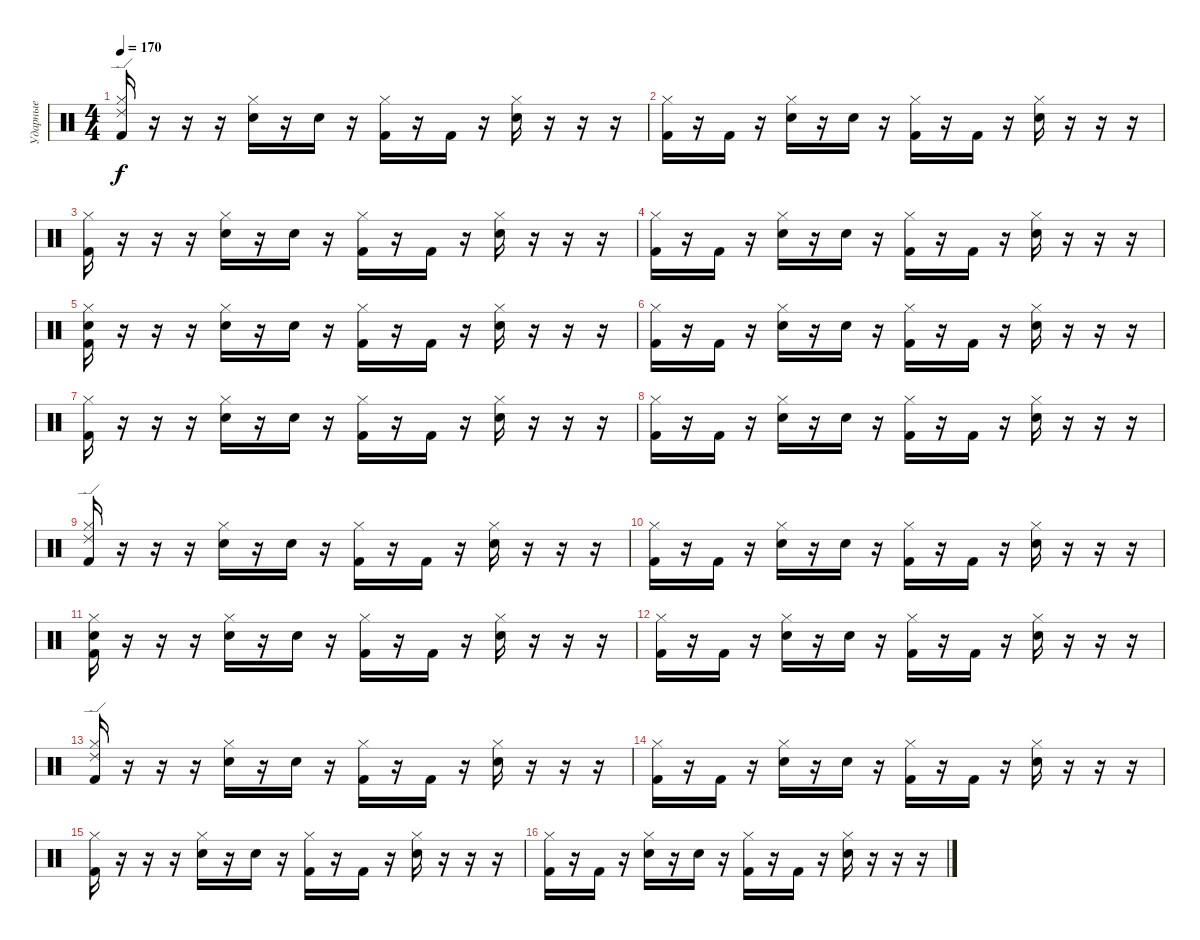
\track ("Ударные" "Ударные") {instrument percussion}
\staff {score}
\articulation defaults
\ts (4 4)
\tempo 170
\clef neutral
\ks c
("Ride (edge) 2" "Hi-Hat (closed)" "Kick (hit) 2").16{dy f} r.16 r.16 r.16 ("Hi-Hat (closed)" "Snare (hit) 2").16 r.16 "Snare (hit) 2".16 r.16 ("Hi-Hat (closed)" "Kick (hit) 2").16 r.16 "Kick (hit) 2".16 r.16 ("Hi-Hat (closed)" "Snare (hit) 2").16 r.16 r.16 r.16 |
("Hi-Hat (closed)" "Kick (hit) 2").16 r.16 "Kick (hit) 2".16 r.16 ("Hi-Hat (closed)" "Snare (hit) 2").16 r.16 "Snare (hit) 2".16 r.16 ("Hi-Hat (closed)" "Kick (hit) 2").16 r.16 "Kick (hit) 2".16 r.16 ("Hi-Hat (closed)" "Snare (hit) 2").16 r.16 r.16 r.16 |
("Hi-Hat (closed)" "Kick (hit) 2").16 r.16 r.16 r.16 ("Hi-Hat (closed)" "Snare (hit) 2").16 r.16 "Snare (hit) 2".16 r.16 ("Hi-Hat (closed)" "Kick (hit) 2").16 r.16 "Kick (hit) 2".16 r.16 ("Hi-Hat (closed)" "Snare (hit) 2").16 r.16 r.16 r.16 |
("Hi-Hat (closed)" "Kick (hit) 2").16 r.16 "Kick (hit) 2".16 r.16 ("Hi-Hat (closed)" "Snare (hit) 2").16 r.16 "Snare (hit) 2".16 r.16 ("Hi-Hat (closed)" "Kick (hit) 2").16 r.16 "Kick (hit) 2".16 r.16 ("Hi-Hat (closed)" "Snare (hit) 2").16 r.16 r.16 r.16 |
("Hi-Hat (closed)" "Snare (hit) 2" "Kick (hit) 2").16 r.16 r.16 r.16 ("Hi-Hat (closed)" "Snare (hit) 2").16 r.16 "Snare (hit) 2".16 r.16 ("Hi-Hat (closed)" "Kick (hit) 2").16 r.16 "Kick (hit) 2".16 r.16 ("Hi-Hat (closed)" "Snare (hit) 2").16 r.16 r.16 r.16 |
("Hi-Hat (closed)" "Kick (hit) 2").16 r.16 "Kick (hit) 2".16 r.16 ("Hi-Hat (closed)" "Snare (hit) 2").16 r.16 "Snare (hit) 2".16 r.16 ("Hi-Hat (closed)" "Kick (hit) 2").16 r.16 "Kick (hit) 2".16 r.16 ("Hi-Hat (closed)" "Snare (hit) 2").16 r.16 r.16 r.16 |
("Hi-Hat (closed)" "Kick (hit) 2").16 r.16 r.16 r.16 ("Hi-Hat (closed)" "Snare (hit) 2").16 r.16 "Snare (hit) 2".16 r.16 ("Hi-Hat (closed)" "Kick (hit) 2").16 r.16 "Kick (hit) 2".16 r.16 ("Hi-Hat (closed)" "Snare (hit) 2").16 r.16 r.16 r.16 |
("Hi-Hat (closed)" "Kick (hit) 2").16 r.16 "Kick (hit) 2".16 r.16 ("Hi-Hat (closed)" "Snare (hit) 2").16 r.16 "Snare (hit) 2".16 r.16 ("Hi-Hat (closed)" "Kick (hit) 2").16 r.16 "Kick (hit) 2".16 r.16 ("Hi-Hat (closed)" "Snare (hit) 2").16 r.16 r.16 r.16 |
("Ride (edge) 2" "Hi-Hat (closed)" "Kick (hit) 2").16 r.16 r.16 r.16 ("Hi-Hat (closed)" "Snare (hit) 2").16 r.16 "Snare (hit) 2".16 r.16 ("Hi-Hat (closed)" "Kick (hit) 2").16 r.16 "Kick (hit) 2".16 r.16 ("Hi-Hat (closed)" "Snare (hit) 2").16 r.16 r.16 r.16 |
("Hi-Hat (closed)" "Kick (hit) 2").16 r.16 "Kick (hit) 2".16 r.16 ("Hi-Hat (closed)" "Snare (hit) 2").16 r.16 "Snare (hit) 2".16 r.16 ("Hi-Hat (closed)" "Kick (hit) 2").16 r.16 "Kick (hit) 2".16 r.16 ("Hi-Hat (closed)" "Snare (hit) 2").16 r.16 r.16 r.16 |
("Hi-Hat (closed)" "Snare (hit) 2" "Kick (hit) 2").16 r.16 r.16 r.16 ("Hi-Hat (closed)" "Snare (hit) 2").16 r.16 "Snare (hit) 2".16 r.16 ("Hi-Hat (closed)" "Kick (hit) 2").16 r.16 "Kick (hit) 2".16 r.16 ("Hi-Hat (closed)" "Snare (hit) 2").16 r.16 r.16 r.16 |
("Hi-Hat (closed)" "Kick (hit) 2").16 r.16 "Kick (hit) 2".16 r.16 ("Hi-Hat (closed)" "Snare (hit) 2").16 r.16 "Snare (hit) 2".16 r.16 ("Hi-Hat (closed)" "Kick (hit) 2").16 r.16 "Kick (hit) 2".16 r.16 ("Hi-Hat (closed)" "Snare (hit) 2").16 r.16 r.16 r.16 |
("Ride (edge) 2" "Hi-Hat (closed)" "Kick (hit) 2").16 r.16 r.16 r.16 ("Hi-Hat (closed)" "Snare (hit) 2").16 r.16 "Snare (hit) 2".16 r.16 ("Hi-Hat (closed)" "Kick (hit) 2").16 r.16 "Kick (hit) 2".16 r.16 ("Hi-Hat (closed)" "Snare (hit) 2").16 r.16 r.16 r.16 |
("Hi-Hat (closed)" "Kick (hit) 2").16 r.16 "Kick (hit) 2".16 r.16 ("Hi-Hat (closed)" "Snare (hit) 2").16 r.16 "Snare (hit) 2".16 r.16 ("Hi-Hat (closed)" "Kick (hit) 2").16 r.16 "Kick (hit) 2".16 r.16 ("Hi-Hat (closed)" "Snare (hit) 2").16 r.16 r.16 r.16 |
("Hi-Hat (closed)" "Kick (hit) 2").16 r.16 r.16 r.16 ("Hi-Hat (closed)" "Snare (hit) 2").16 r.16 "Snare (hit) 2".16 r.16 ("Hi-Hat (closed)" "Kick (hit) 2").16 r.16 "Kick (hit) 2".16 r.16 ("Hi-Hat (closed)" "Snare (hit) 2").16 r.16 r.16 r.16 |
("Hi-Hat (closed)" "Kick (hit) 2").16 r.16 "Kick (hit) 2".16 r.16 ("Hi-Hat (closed)" "Snare (hit) 2").16 r.16 "Snare (hit) 2".16 r.16 ("Hi-Hat (closed)" "Kick (hit) 2").16 r.16 "Kick (hit) 2".16 r.16 ("Hi-Hat (closed)" "Snare (hit) 2").16 r.16 r.16 r.16
